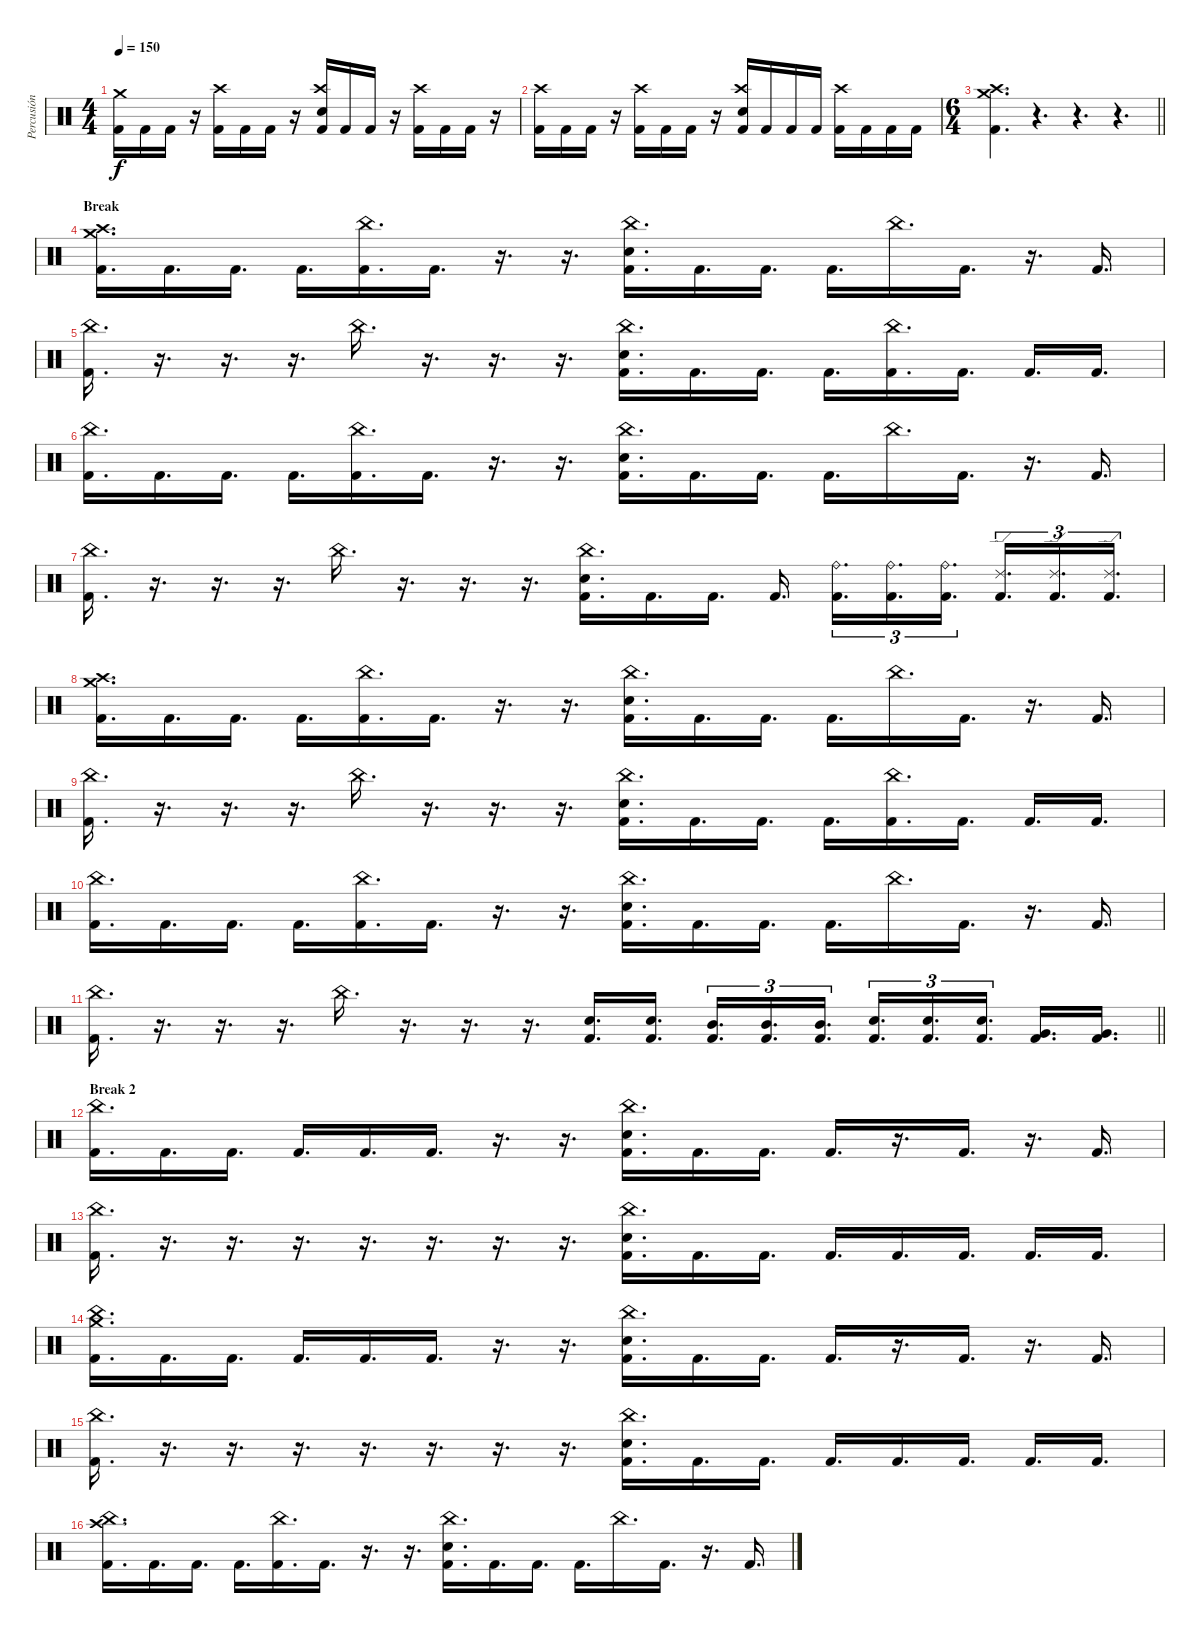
\track ("Percusión" "Percusión") {instrument percussion}
\staff {score}
\articulation defaults
\ts (4 4)
\tempo 150
\clef neutral
\ks c
("Crash medium (hit)" "Kick (hit) 2").16{dy f} "Kick (hit) 2".16 "Kick (hit) 2".16 r.16 ("Crash high (hit)" "Kick (hit) 2").16 "Kick (hit) 2".16 "Kick (hit) 2".16 r.16 ("Crash high (hit)" "Electric Snare (hit)" "Kick (hit) 2").16 "Kick (hit) 2".16 "Kick (hit) 2".16 r.16 ("Crash high (hit)" "Kick (hit) 2").16 "Kick (hit) 2".16 "Kick (hit) 2".16 r.16 |
("Crash high (hit)" "Kick (hit) 2").16 "Kick (hit) 2".16 "Kick (hit) 2".16 r.16 ("Crash high (hit)" "Kick (hit) 2").16 "Kick (hit) 2".16 "Kick (hit) 2".16 r.16 ("Crash high (hit)" "Electric Snare (hit)" "Kick (hit) 2").16 "Kick (hit) 2".16 "Kick (hit) 2".16 "Kick (hit) 2".16 ("Crash high (hit)" "Kick (hit) 2").16 "Kick (hit) 2".16 "Kick (hit) 2".16 "Kick (hit) 2".16 |
\ts (6 4)
\barLineRight lightlight
("Crash medium (hit)" "Crash high (hit)" "Kick (hit) 2").4{d} r.4{d} r.4{d} r.4{d} |
\section ("" "Break ")
("Crash medium (hit)" "Crash high (hit)" "Kick (hit) 2").16{d} "Kick (hit) 2".16{d} "Kick (hit) 2".16{d} "Kick (hit) 2".16{d} ("China (hit)" "Kick (hit) 2").16{d} "Kick (hit) 2".16{d} r.16{d} r.16{d} ("China (hit)" "Electric Snare (hit)" "Kick (hit) 2").16{d} "Kick (hit) 2".16{d} "Kick (hit) 2".16{d} "Kick (hit) 2".16{d} "China (hit)".16{d} "Kick (hit) 2".16{d} r.16{d} "Kick (hit) 2".16{d} |
("China (hit)" "Kick (hit) 2").16{d} r.16{d} r.16{d} r.16{d} "China (hit)".16{d} r.16{d} r.16{d} r.16{d} ("China (hit)" "Electric Snare (hit)" "Kick (hit) 2").16{d} "Kick (hit) 2".16{d} "Kick (hit) 2".16{d} "Kick (hit) 2".16{d} ("China (hit)" "Kick (hit) 2").16{d} "Kick (hit) 2".16{d} "Kick (hit) 2".16{d} "Kick (hit) 2".16{d} |
("China (hit)" "Kick (hit) 2").16{d} "Kick (hit) 2".16{d} "Kick (hit) 2".16{d} "Kick (hit) 2".16{d} ("China (hit)" "Kick (hit) 2").16{d} "Kick (hit) 2".16{d} r.16{d} r.16{d} ("China (hit)" "Electric Snare (hit)" "Kick (hit) 2").16{d} "Kick (hit) 2".16{d} "Kick (hit) 2".16{d} "Kick (hit) 2".16{d} "China (hit)".16{d} "Kick (hit) 2".16{d} r.16{d} "Kick (hit) 2".16{d} |
("China (hit)" "Kick (hit) 2").16{d} r.16{d} r.16{d} r.16{d} "China (hit)".16{d} r.16{d} r.16{d} r.16{d} ("China (hit)" "Electric Snare (hit)" "Kick (hit) 2").16{d} "Kick (hit) 2".16{d} "Kick (hit) 2".16{d} "Kick (hit) 2".16{d beam splitsecondary} ("Ride (bell)" "Kick (hit) 2").16{d tu (3 2)} ("Ride (bell)" "Kick (hit) 2").16{d tu (3 2)} ("Ride (bell)" "Kick (hit) 2").16{d tu (3 2)} ("Ride (edge) 2" "Kick (hit) 2").16{d tu (3 2)} ("Ride (edge) 2" "Kick (hit) 2").16{d tu (3 2)} ("Ride (edge) 2" "Kick (hit) 2").16{d tu (3 2)} |
("Crash medium (hit)" "Crash high (hit)" "Kick (hit) 2").16{d} "Kick (hit) 2".16{d} "Kick (hit) 2".16{d} "Kick (hit) 2".16{d} ("China (hit)" "Kick (hit) 2").16{d} "Kick (hit) 2".16{d} r.16{d} r.16{d} ("China (hit)" "Electric Snare (hit)" "Kick (hit) 2").16{d} "Kick (hit) 2".16{d} "Kick (hit) 2".16{d} "Kick (hit) 2".16{d} "China (hit)".16{d} "Kick (hit) 2".16{d} r.16{d} "Kick (hit) 2".16{d} |
("China (hit)" "Kick (hit) 2").16{d} r.16{d} r.16{d} r.16{d} "China (hit)".16{d} r.16{d} r.16{d} r.16{d} ("China (hit)" "Electric Snare (hit)" "Kick (hit) 2").16{d} "Kick (hit) 2".16{d} "Kick (hit) 2".16{d} "Kick (hit) 2".16{d} ("China (hit)" "Kick (hit) 2").16{d} "Kick (hit) 2".16{d} "Kick (hit) 2".16{d} "Kick (hit) 2".16{d} |
("China (hit)" "Kick (hit) 2").16{d} "Kick (hit) 2".16{d} "Kick (hit) 2".16{d} "Kick (hit) 2".16{d} ("China (hit)" "Kick (hit) 2").16{d} "Kick (hit) 2".16{d} r.16{d} r.16{d} ("China (hit)" "Electric Snare (hit)" "Kick (hit) 2").16{d} "Kick (hit) 2".16{d} "Kick (hit) 2".16{d} "Kick (hit) 2".16{d} "China (hit)".16{d} "Kick (hit) 2".16{d} r.16{d} "Kick (hit) 2".16{d} |
\barLineRight lightlight
("China (hit)" "Kick (hit) 2").16{d} r.16{d} r.16{d} r.16{d} "China (hit)".16{d} r.16{d} r.16{d} r.16{d} ("Electric Snare (hit)" "Kick (hit) 2").16{d} ("Electric Snare (hit)" "Kick (hit) 2").16{d beam splitsecondary} ("Mid Tom (hit)" "Kick (hit) 2").16{d tu (3 2)} ("Mid Tom (hit)" "Kick (hit) 2").16{d tu (3 2)} ("Mid Tom (hit)" "Kick (hit) 2").16{d tu (3 2)} ("Electric Snare (hit)" "Kick (hit) 2").16{d tu (3 2)} ("Electric Snare (hit)" "Kick (hit) 2").16{d tu (3 2)} ("Electric Snare (hit)" "Kick (hit) 2").16{d tu (3 2) beam splitsecondary} ("Very Low Tom (hit)" "Kick (hit) 2").16{d} ("Very Low Tom (hit)" "Kick (hit) 2").16{d} |
\section ("" "Break 2")
("China (hit)" "Kick (hit) 2").16{d} "Kick (hit) 2".16{d} "Kick (hit) 2".16{d} "Kick (hit) 2".16{d} "Kick (hit) 2".16{d} "Kick (hit) 2".16{d} r.16{d} r.16{d} ("China (hit)" "Electric Snare (hit)" "Kick (hit) 2").16{d} "Kick (hit) 2".16{d} "Kick (hit) 2".16{d} "Kick (hit) 2".16{d} r.16{d} "Kick (hit) 2".16{d} r.16{d} "Kick (hit) 2".16{d} |
("China (hit)" "Kick (hit) 2").16{d} r.16{d} r.16{d} r.16{d} r.16{d} r.16{d} r.16{d} r.16{d} ("China (hit)" "Electric Snare (hit)" "Kick (hit) 2").16{d} "Kick (hit) 2".16{d} "Kick (hit) 2".16{d} "Kick (hit) 2".16{d} "Kick (hit) 2".16{d} "Kick (hit) 2".16{d} "Kick (hit) 2".16{d} "Kick (hit) 2".16{d} |
("China (hit)" "Crash medium (hit)" "Kick (hit) 2").16{d} "Kick (hit) 2".16{d} "Kick (hit) 2".16{d} "Kick (hit) 2".16{d} "Kick (hit) 2".16{d} "Kick (hit) 2".16{d} r.16{d} r.16{d} ("China (hit)" "Electric Snare (hit)" "Kick (hit) 2").16{d} "Kick (hit) 2".16{d} "Kick (hit) 2".16{d} "Kick (hit) 2".16{d} r.16{d} "Kick (hit) 2".16{d} r.16{d} "Kick (hit) 2".16{d} |
("China (hit)" "Kick (hit) 2").16{d} r.16{d} r.16{d} r.16{d} r.16{d} r.16{d} r.16{d} r.16{d} ("China (hit)" "Electric Snare (hit)" "Kick (hit) 2").16{d} "Kick (hit) 2".16{d} "Kick (hit) 2".16{d} "Kick (hit) 2".16{d} "Kick (hit) 2".16{d} "Kick (hit) 2".16{d} "Kick (hit) 2".16{d} "Kick (hit) 2".16{d} |
("China (hit)" "Crash high (hit)" "Kick (hit) 2").16{d} "Kick (hit) 2".16{d} "Kick (hit) 2".16{d} "Kick (hit) 2".16{d} ("China (hit)" "Kick (hit) 2").16{d} "Kick (hit) 2".16{d} r.16{d} r.16{d} ("China (hit)" "Electric Snare (hit)" "Kick (hit) 2").16{d} "Kick (hit) 2".16{d} "Kick (hit) 2".16{d} "Kick (hit) 2".16{d} "China (hit)".16{d} "Kick (hit) 2".16{d} r.16{d} "Kick (hit) 2".16{d}
